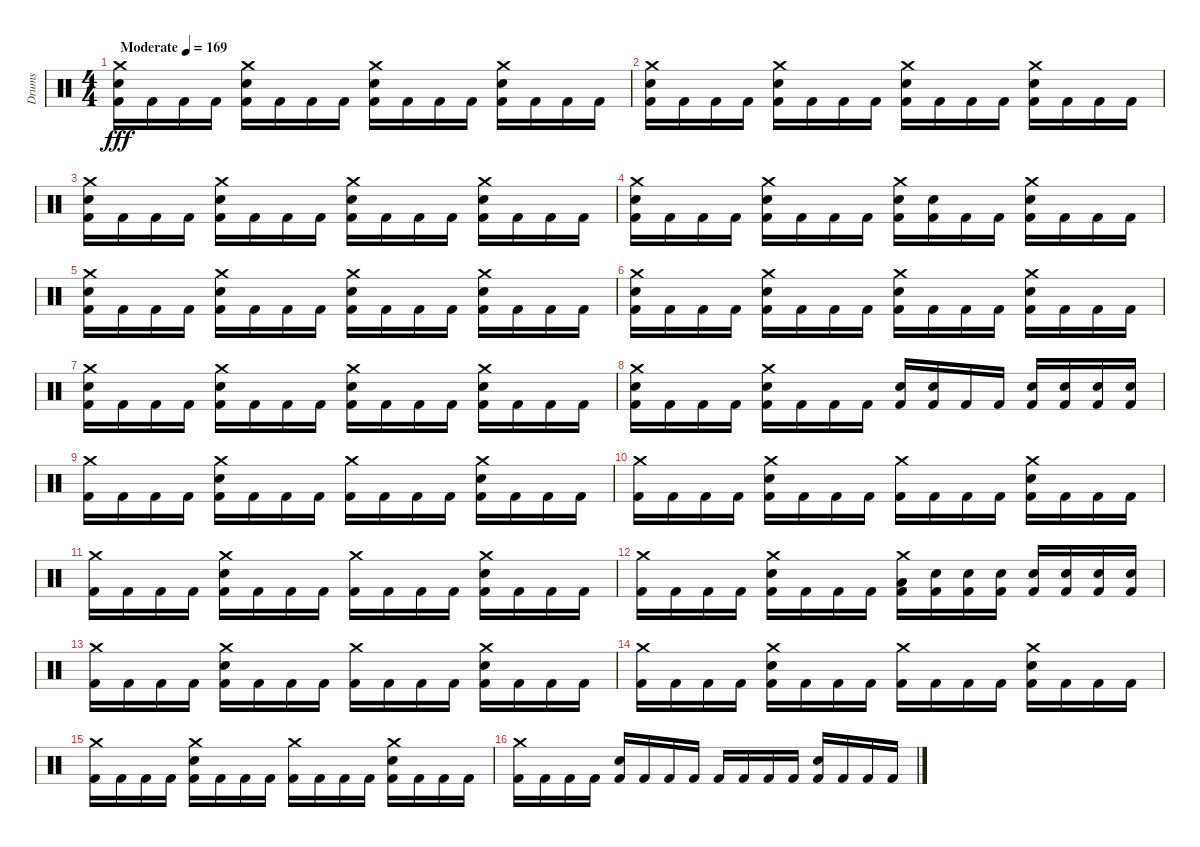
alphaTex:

\track ("Drums" "Drums") {instrument percussion}
\staff {score}
\articulation defaults
\ts (4 4)
\tempo (169 "Moderate")
\clef neutral
\ks c
("Crash medium (hit)" "Electric Snare (hit)" "Kick (hit) 2").16{dy fff} "Kick (hit) 2".16 "Kick (hit) 2".16 "Kick (hit) 2".16 ("Crash medium (hit)" "Electric Snare (hit)" "Kick (hit) 2").16 "Kick (hit) 2".16 "Kick (hit) 2".16 "Kick (hit) 2".16 ("Crash medium (hit)" "Electric Snare (hit)" "Kick (hit) 2").16 "Kick (hit) 2".16 "Kick (hit) 2".16 "Kick (hit) 2".16 ("Crash medium (hit)" "Electric Snare (hit)" "Kick (hit) 2").16 "Kick (hit) 2".16 "Kick (hit) 2".16 "Kick (hit) 2".16 |
("Crash medium (hit)" "Electric Snare (hit)" "Kick (hit) 2").16 "Kick (hit) 2".16 "Kick (hit) 2".16 "Kick (hit) 2".16 ("Crash medium (hit)" "Electric Snare (hit)" "Kick (hit) 2").16 "Kick (hit) 2".16 "Kick (hit) 2".16 "Kick (hit) 2".16 ("Crash medium (hit)" "Electric Snare (hit)" "Kick (hit) 2").16 "Kick (hit) 2".16 "Kick (hit) 2".16 "Kick (hit) 2".16 ("Crash medium (hit)" "Electric Snare (hit)" "Kick (hit) 2").16 "Kick (hit) 2".16 "Kick (hit) 2".16 "Kick (hit) 2".16 |
("Crash medium (hit)" "Electric Snare (hit)" "Kick (hit) 2").16 "Kick (hit) 2".16 "Kick (hit) 2".16 "Kick (hit) 2".16 ("Crash medium (hit)" "Electric Snare (hit)" "Kick (hit) 2").16 "Kick (hit) 2".16 "Kick (hit) 2".16 "Kick (hit) 2".16 ("Crash medium (hit)" "Electric Snare (hit)" "Kick (hit) 2").16 "Kick (hit) 2".16 "Kick (hit) 2".16 "Kick (hit) 2".16 ("Crash medium (hit)" "Electric Snare (hit)" "Kick (hit) 2").16 "Kick (hit) 2".16 "Kick (hit) 2".16 "Kick (hit) 2".16 |
("Crash medium (hit)" "Electric Snare (hit)" "Kick (hit) 2").16 "Kick (hit) 2".16 "Kick (hit) 2".16 "Kick (hit) 2".16 ("Crash medium (hit)" "Electric Snare (hit)" "Kick (hit) 2").16 "Kick (hit) 2".16 "Kick (hit) 2".16 "Kick (hit) 2".16 ("Crash medium (hit)" "Electric Snare (hit)" "Kick (hit) 2").16 ("Electric Snare (hit)" "Kick (hit) 2").16 "Kick (hit) 2".16 "Kick (hit) 2".16 ("Crash medium (hit)" "Electric Snare (hit)" "Kick (hit) 2").16 "Kick (hit) 2".16 "Kick (hit) 2".16 "Kick (hit) 2".16 |
("Crash medium (hit)" "Electric Snare (hit)" "Kick (hit) 2").16 "Kick (hit) 2".16 "Kick (hit) 2".16 "Kick (hit) 2".16 ("Crash medium (hit)" "Electric Snare (hit)" "Kick (hit) 2").16 "Kick (hit) 2".16 "Kick (hit) 2".16 "Kick (hit) 2".16 ("Crash medium (hit)" "Electric Snare (hit)" "Kick (hit) 2").16 "Kick (hit) 2".16 "Kick (hit) 2".16 "Kick (hit) 2".16 ("Crash medium (hit)" "Electric Snare (hit)" "Kick (hit) 2").16 "Kick (hit) 2".16 "Kick (hit) 2".16 "Kick (hit) 2".16 |
("Crash medium (hit)" "Electric Snare (hit)" "Kick (hit) 2").16 "Kick (hit) 2".16 "Kick (hit) 2".16 "Kick (hit) 2".16 ("Crash medium (hit)" "Electric Snare (hit)" "Kick (hit) 2").16 "Kick (hit) 2".16 "Kick (hit) 2".16 "Kick (hit) 2".16 ("Crash medium (hit)" "Electric Snare (hit)" "Kick (hit) 2").16 "Kick (hit) 2".16 "Kick (hit) 2".16 "Kick (hit) 2".16 ("Crash medium (hit)" "Electric Snare (hit)" "Kick (hit) 2").16 "Kick (hit) 2".16 "Kick (hit) 2".16 "Kick (hit) 2".16 |
("Crash medium (hit)" "Electric Snare (hit)" "Kick (hit) 2").16 "Kick (hit) 2".16 "Kick (hit) 2".16 "Kick (hit) 2".16 ("Crash medium (hit)" "Electric Snare (hit)" "Kick (hit) 2").16 "Kick (hit) 2".16 "Kick (hit) 2".16 "Kick (hit) 2".16 ("Crash medium (hit)" "Electric Snare (hit)" "Kick (hit) 2").16 "Kick (hit) 2".16 "Kick (hit) 2".16 "Kick (hit) 2".16 ("Crash medium (hit)" "Electric Snare (hit)" "Kick (hit) 2").16 "Kick (hit) 2".16 "Kick (hit) 2".16 "Kick (hit) 2".16 |
("Crash medium (hit)" "Electric Snare (hit)" "Kick (hit) 2").16 "Kick (hit) 2".16 "Kick (hit) 2".16 "Kick (hit) 2".16 ("Crash medium (hit)" "Electric Snare (hit)" "Kick (hit) 2").16 "Kick (hit) 2".16 "Kick (hit) 2".16 "Kick (hit) 2".16 ("Electric Snare (hit)" "Kick (hit) 2").16 ("Electric Snare (hit)" "Kick (hit) 2").16 "Kick (hit) 2".16 "Kick (hit) 2".16 ("Electric Snare (hit)" "Kick (hit) 2").16 ("Electric Snare (hit)" "Kick (hit) 2").16 ("Electric Snare (hit)" "Kick (hit) 2").16 ("Electric Snare (hit)" "Kick (hit) 2").16 |
("Crash medium (hit)" "Kick (hit) 2").16 "Kick (hit) 2".16 "Kick (hit) 2".16 "Kick (hit) 2".16 ("Crash medium (hit)" "Electric Snare (hit)" "Kick (hit) 2").16 "Kick (hit) 2".16 "Kick (hit) 2".16 "Kick (hit) 2".16 ("Crash medium (hit)" "Kick (hit) 2").16 "Kick (hit) 2".16 "Kick (hit) 2".16 "Kick (hit) 2".16 ("Crash medium (hit)" "Electric Snare (hit)" "Kick (hit) 2").16 "Kick (hit) 2".16 "Kick (hit) 2".16 "Kick (hit) 2".16 |
("Crash medium (hit)" "Kick (hit) 2").16 "Kick (hit) 2".16 "Kick (hit) 2".16 "Kick (hit) 2".16 ("Crash medium (hit)" "Electric Snare (hit)" "Kick (hit) 2").16 "Kick (hit) 2".16 "Kick (hit) 2".16 "Kick (hit) 2".16 ("Crash medium (hit)" "Kick (hit) 2").16 "Kick (hit) 2".16 "Kick (hit) 2".16 "Kick (hit) 2".16 ("Crash medium (hit)" "Electric Snare (hit)" "Kick (hit) 2").16 "Kick (hit) 2".16 "Kick (hit) 2".16 "Kick (hit) 2".16 |
("Crash medium (hit)" "Kick (hit) 2").16 "Kick (hit) 2".16 "Kick (hit) 2".16 "Kick (hit) 2".16 ("Crash medium (hit)" "Electric Snare (hit)" "Kick (hit) 2").16 "Kick (hit) 2".16 "Kick (hit) 2".16 "Kick (hit) 2".16 ("Crash medium (hit)" "Kick (hit) 2").16 "Kick (hit) 2".16 "Kick (hit) 2".16 "Kick (hit) 2".16 ("Crash medium (hit)" "Electric Snare (hit)" "Kick (hit) 2").16 "Kick (hit) 2".16 "Kick (hit) 2".16 "Kick (hit) 2".16 |
("Crash medium (hit)" "Kick (hit) 2").16 "Kick (hit) 2".16 "Kick (hit) 2".16 "Kick (hit) 2".16 ("Crash medium (hit)" "Electric Snare (hit)" "Kick (hit) 2").16 "Kick (hit) 2".16 "Kick (hit) 2".16 "Kick (hit) 2".16 ("Crash medium (hit)" "Low Tom (hit)" "Kick (hit) 2").16 ("Electric Snare (hit)" "Kick (hit) 2").16 ("Electric Snare (hit)" "Kick (hit) 2").16 ("Electric Snare (hit)" "Kick (hit) 2").16 ("Electric Snare (hit)" "Kick (hit) 2").16 ("Electric Snare (hit)" "Kick (hit) 2").16 ("Electric Snare (hit)" "Kick (hit) 2").16 ("Electric Snare (hit)" "Kick (hit) 2").16 |
("Crash medium (hit)" "Kick (hit) 2").16 "Kick (hit) 2".16 "Kick (hit) 2".16 "Kick (hit) 2".16 ("Crash medium (hit)" "Electric Snare (hit)" "Kick (hit) 2").16 "Kick (hit) 2".16 "Kick (hit) 2".16 "Kick (hit) 2".16 ("Crash medium (hit)" "Kick (hit) 2").16 "Kick (hit) 2".16 "Kick (hit) 2".16 "Kick (hit) 2".16 ("Crash medium (hit)" "Electric Snare (hit)" "Kick (hit) 2").16 "Kick (hit) 2".16 "Kick (hit) 2".16 "Kick (hit) 2".16 |
("Crash medium (hit)" "Kick (hit) 2").16 "Kick (hit) 2".16 "Kick (hit) 2".16 "Kick (hit) 2".16 ("Crash medium (hit)" "Electric Snare (hit)" "Kick (hit) 2").16 "Kick (hit) 2".16 "Kick (hit) 2".16 "Kick (hit) 2".16 ("Crash medium (hit)" "Kick (hit) 2").16 "Kick (hit) 2".16 "Kick (hit) 2".16 "Kick (hit) 2".16 ("Crash medium (hit)" "Electric Snare (hit)" "Kick (hit) 2").16 "Kick (hit) 2".16 "Kick (hit) 2".16 "Kick (hit) 2".16 |
("Crash medium (hit)" "Kick (hit) 2").16 "Kick (hit) 2".16 "Kick (hit) 2".16 "Kick (hit) 2".16 ("Crash medium (hit)" "Electric Snare (hit)" "Kick (hit) 2").16 "Kick (hit) 2".16 "Kick (hit) 2".16 "Kick (hit) 2".16 ("Crash medium (hit)" "Kick (hit) 2").16 "Kick (hit) 2".16 "Kick (hit) 2".16 "Kick (hit) 2".16 ("Crash medium (hit)" "Electric Snare (hit)" "Kick (hit) 2").16 "Kick (hit) 2".16 "Kick (hit) 2".16 "Kick (hit) 2".16 |
("Crash medium (hit)" "Kick (hit) 2").16 "Kick (hit) 2".16 "Kick (hit) 2".16 "Kick (hit) 2".16 ("Electric Snare (hit)" "Kick (hit) 2").16 "Kick (hit) 2".16 "Kick (hit) 2".16 "Kick (hit) 2".16 "Kick (hit) 2".16 "Kick (hit) 2".16 "Kick (hit) 2".16 "Kick (hit) 2".16 ("Electric Snare (hit)" "Kick (hit) 2").16 "Kick (hit) 2".16 "Kick (hit) 2".16 "Kick (hit) 2".16
